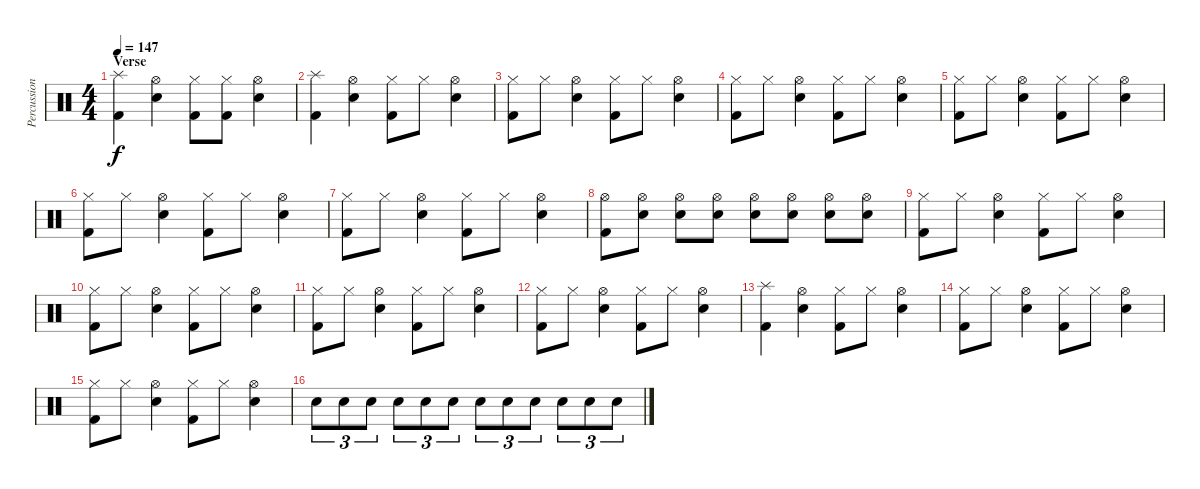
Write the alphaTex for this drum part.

\track ("Percussion" "Percussion") {instrument percussion}
\staff {score}
\articulation defaults
\ts (4 4)
\section ("" "Verse")
\tempo 147
\clef neutral
\ks c
("Splash (hit)" "Kick (hit) 2").4{dy f} ("Hi-Hat (open)" "Snare (hit) 2").4 ("Hi-Hat (closed)" "Kick (hit) 2").8 ("Hi-Hat (closed)" "Kick (hit) 2").8 ("Hi-Hat (open)" "Snare (hit) 2").4 |
("Splash (hit)" "Kick (hit) 2").4 ("Hi-Hat (open)" "Snare (hit) 2").4 ("Hi-Hat (closed)" "Kick (hit) 2").8 "Hi-Hat (closed)".8 ("Hi-Hat (open)" "Snare (hit) 2").4 |
("Hi-Hat (closed)" "Kick (hit) 2").8 "Hi-Hat (closed)".8 ("Hi-Hat (open)" "Snare (hit) 2").4 ("Hi-Hat (closed)" "Kick (hit) 2").8 "Hi-Hat (closed)".8 ("Hi-Hat (open)" "Snare (hit) 2").4 |
("Hi-Hat (closed)" "Kick (hit) 2").8 "Hi-Hat (closed)".8 ("Hi-Hat (open)" "Snare (hit) 2").4 ("Hi-Hat (closed)" "Kick (hit) 2").8 "Hi-Hat (closed)".8 ("Hi-Hat (open)" "Snare (hit) 2").4 |
("Hi-Hat (closed)" "Kick (hit) 2").8 "Hi-Hat (closed)".8 ("Hi-Hat (open)" "Snare (hit) 2").4 ("Hi-Hat (closed)" "Kick (hit) 2").8 "Hi-Hat (closed)".8 ("Hi-Hat (open)" "Snare (hit) 2").4 |
("Hi-Hat (closed)" "Kick (hit) 2").8 "Hi-Hat (closed)".8 ("Hi-Hat (open)" "Snare (hit) 2").4 ("Hi-Hat (closed)" "Kick (hit) 2").8 "Hi-Hat (closed)".8 ("Hi-Hat (open)" "Snare (hit) 2").4 |
("Hi-Hat (closed)" "Kick (hit) 2").8 "Hi-Hat (closed)".8 ("Hi-Hat (open)" "Snare (hit) 2").4 ("Hi-Hat (closed)" "Kick (hit) 2").8 "Hi-Hat (closed)".8 ("Hi-Hat (open)" "Snare (hit) 2").4 |
("Hi-Hat (open)" "Kick (hit) 2").8 ("Hi-Hat (open)" "Snare (hit) 2").8 ("Hi-Hat (open)" "Snare (hit) 2").8 ("Hi-Hat (open)" "Snare (hit) 2").8 ("Hi-Hat (open)" "Snare (hit) 2").8 ("Hi-Hat (open)" "Snare (hit) 2").8 ("Hi-Hat (open)" "Snare (hit) 2").8 ("Hi-Hat (open)" "Snare (hit) 2").8 |
("Hi-Hat (closed)" "Kick (hit) 2").8 "Hi-Hat (closed)".8 ("Hi-Hat (open)" "Snare (hit) 2").4 ("Hi-Hat (closed)" "Kick (hit) 2").8 "Hi-Hat (closed)".8 ("Hi-Hat (open)" "Snare (hit) 2").4 |
("Hi-Hat (closed)" "Kick (hit) 2").8 "Hi-Hat (closed)".8 ("Hi-Hat (open)" "Snare (hit) 2").4 ("Hi-Hat (closed)" "Kick (hit) 2").8 "Hi-Hat (closed)".8 ("Hi-Hat (open)" "Snare (hit) 2").4 |
("Hi-Hat (closed)" "Kick (hit) 2").8 "Hi-Hat (closed)".8 ("Hi-Hat (open)" "Snare (hit) 2").4 ("Hi-Hat (closed)" "Kick (hit) 2").8 "Hi-Hat (closed)".8 ("Hi-Hat (open)" "Snare (hit) 2").4 |
("Hi-Hat (closed)" "Kick (hit) 2").8 "Hi-Hat (closed)".8 ("Hi-Hat (open)" "Snare (hit) 2").4 ("Hi-Hat (closed)" "Kick (hit) 2").8 "Hi-Hat (closed)".8 ("Hi-Hat (open)" "Snare (hit) 2").4 |
("Splash (hit)" "Kick (hit) 2").4 ("Hi-Hat (open)" "Snare (hit) 2").4 ("Hi-Hat (closed)" "Kick (hit) 2").8 "Hi-Hat (closed)".8 ("Hi-Hat (open)" "Snare (hit) 2").4 |
("Hi-Hat (closed)" "Kick (hit) 2").8 "Hi-Hat (closed)".8 ("Hi-Hat (open)" "Snare (hit) 2").4 ("Hi-Hat (closed)" "Kick (hit) 2").8 "Hi-Hat (closed)".8 ("Hi-Hat (open)" "Snare (hit) 2").4 |
("Hi-Hat (closed)" "Kick (hit) 2").8 "Hi-Hat (closed)".8 ("Hi-Hat (open)" "Snare (hit) 2").4 ("Hi-Hat (closed)" "Kick (hit) 2").8 "Hi-Hat (closed)".8 ("Hi-Hat (open)" "Snare (hit) 2").4 |
"Snare (hit) 2".8{tu (3 2)} "Snare (hit) 2".8{tu (3 2)} "Snare (hit) 2".8{tu (3 2)} "Snare (hit) 2".8{tu (3 2)} "Snare (hit) 2".8{tu (3 2)} "Snare (hit) 2".8{tu (3 2)} "Snare (hit) 2".8{tu (3 2)} "Snare (hit) 2".8{tu (3 2)} "Snare (hit) 2".8{tu (3 2)} "Snare (hit) 2".8{tu (3 2)} "Snare (hit) 2".8{tu (3 2)} "Snare (hit) 2".8{tu (3 2)}
